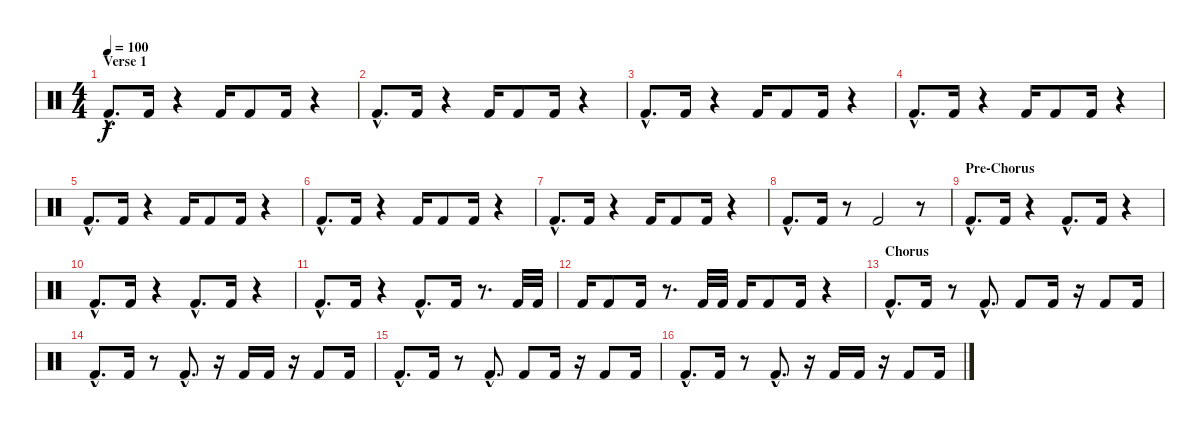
\track "" {instrument percussion}
\staff {score}
\articulation defaults
\ts (4 4)
\section ("" "Verse 1")
\tempo 100
\clef neutral
\ks c "Kick (hit) 2"{hac}.8{d dy f} "Kick (hit) 2".16
r.4 "Kick (hit) 2".16 "Kick (hit) 2".8 "Kick (hit) 2".16 r.4 |
"Kick (hit) 2"{hac}.8{d} "Kick (hit) 2".16 r.4 "Kick (hit) 2".16 "Kick (hit) 2".8 "Kick (hit) 2".16 r.4 |
"Kick (hit) 2"{hac}.8{d} "Kick (hit) 2".16 r.4 "Kick (hit) 2".16 "Kick (hit) 2".8 "Kick (hit) 2".16 r.4 |
"Kick (hit) 2"{hac}.8{d} "Kick (hit) 2".16 r.4 "Kick (hit) 2".16 "Kick (hit) 2".8 "Kick (hit) 2".16 r.4 |
"Kick (hit) 2"{hac}.8{d} "Kick (hit) 2".16 r.4 "Kick (hit) 2".16 "Kick (hit) 2".8 "Kick (hit) 2".16 r.4 |
"Kick (hit) 2"{hac}.8{d} "Kick (hit) 2".16 r.4 "Kick (hit) 2".16 "Kick (hit) 2".8 "Kick (hit) 2".16 r.4 |
"Kick (hit) 2"{hac}.8{d} "Kick (hit) 2".16 r.4 "Kick (hit) 2".16 "Kick (hit) 2".8 "Kick (hit) 2".16 r.4 |
"Kick (hit) 2"{hac}.8{d} "Kick (hit) 2".16 r.8 "Kick (hit) 2".2 r.8 |
\section ("" "Pre-Chorus")
"Kick (hit) 2"{hac}.8{d} "Kick (hit) 2".16 r.4 "Kick (hit) 2"{hac}.8{d} "Kick (hit) 2".16 r.4 |
"Kick (hit) 2"{hac}.8{d} "Kick (hit) 2".16 r.4 "Kick (hit) 2"{hac}.8{d} "Kick (hit) 2".16 r.4 |
"Kick (hit) 2"{hac}.8{d} "Kick (hit) 2".16 r.4 "Kick (hit) 2"{hac}.8{d} "Kick (hit) 2".16 r.8{d} "Kick (hit) 2".32 "Kick (hit) 2".32 |
"Kick (hit) 2".16 "Kick (hit) 2".8 "Kick (hit) 2".16 r.8{d} "Kick (hit) 2".32 "Kick (hit) 2".32 "Kick (hit) 2".16 "Kick (hit) 2".8 "Kick (hit) 2".16 r.4 |
\section ("" "Chorus")
"Kick (hit) 2"{hac}.8{d} "Kick (hit) 2".16 r.8 "Kick (hit) 2"{hac}.8{d} "Kick (hit) 2".8 "Kick (hit) 2".16 r.16 "Kick (hit) 2".8 "Kick (hit) 2".16 |
"Kick (hit) 2"{hac}.8{d} "Kick (hit) 2".16 r.8 "Kick (hit) 2"{hac}.8{d} r.16 "Kick (hit) 2".16 "Kick (hit) 2".16 r.16 "Kick (hit) 2".8 "Kick (hit) 2".16 |
"Kick (hit) 2"{hac}.8{d} "Kick (hit) 2".16 r.8 "Kick (hit) 2"{hac}.8{d} "Kick (hit) 2".8 "Kick (hit) 2".16 r.16 "Kick (hit) 2".8 "Kick (hit) 2".16 |
"Kick (hit) 2"{hac}.8{d} "Kick (hit) 2".16 r.8 "Kick (hit) 2"{hac}.8{d} r.16 "Kick (hit) 2".16 "Kick (hit) 2".16 r.16 "Kick (hit) 2".8 "Kick (hit) 2".16
